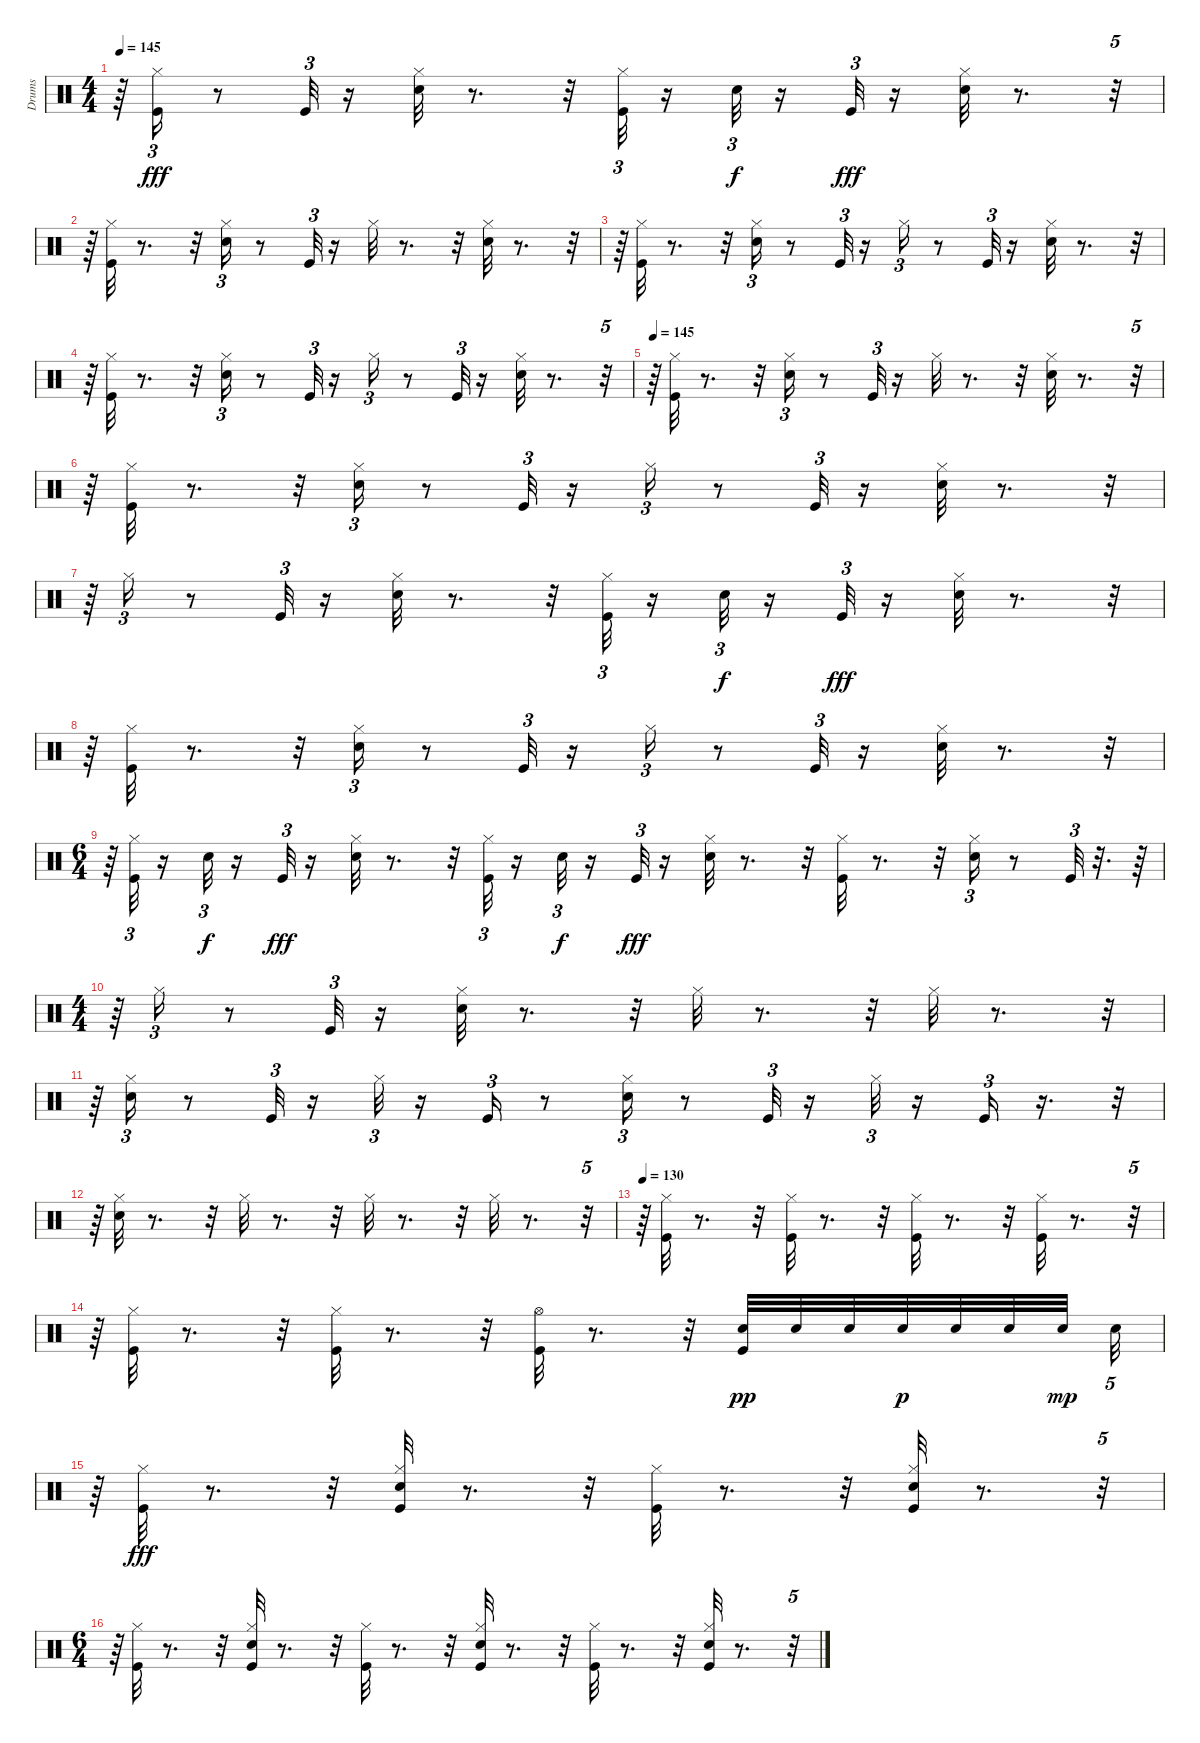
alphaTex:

\track ("Drums" "Drums") {instrument percussion}
\staff {score}
\articulation defaults
\ts (4 4)
\tempo 145
\clef neutral
\ks c
r.64{dy fff} ("Kick (hit)" "Hi-Hat (closed)").16{tu (3 2)} r.8 "Kick (hit)".32{tu (3 2)} r.16 ("Electric Snare (hit)" "Hi-Hat (closed)").32 r.8{d} r.32 ("Kick (hit)" "Hi-Hat (closed)").32{tu (3 2)} r.16 "Electric Snare (hit)".32{tu (3 2) dy f} r.16 "Kick (hit)".32{tu (3 2) dy fff} r.16 ("Electric Snare (hit)" "Hi-Hat (closed)").32 r.8{d} r.32{tu (5 4)} |
r.64 ("Kick (hit)" "Hi-Hat (closed)").32 r.8{d} r.32 ("Electric Snare (hit)" "Hi-Hat (closed)").16{tu (3 2)} r.8 "Kick (hit)".32{tu (3 2)} r.16 "Hi-Hat (closed)".32 r.8{d} r.32 ("Electric Snare (hit)" "Hi-Hat (closed)").32 r.8{d} r.32{tu (5 4)} |
r.64 ("Kick (hit)" "Hi-Hat (closed)").32 r.8{d} r.32 ("Electric Snare (hit)" "Hi-Hat (closed)").16{tu (3 2)} r.8 "Kick (hit)".32{tu (3 2)} r.16 "Hi-Hat (closed)".16{tu (3 2)} r.8 "Kick (hit)".32{tu (3 2)} r.16 ("Electric Snare (hit)" "Hi-Hat (closed)").32 r.8{d} r.32{tu (5 4)} |
r.64 ("Kick (hit)" "Hi-Hat (closed)").32 r.8{d} r.32 ("Electric Snare (hit)" "Hi-Hat (closed)").16{tu (3 2)} r.8 "Kick (hit)".32{tu (3 2)} r.16 "Hi-Hat (closed)".16{tu (3 2)} r.8 "Kick (hit)".32{tu (3 2)} r.16 ("Electric Snare (hit)" "Hi-Hat (closed)").32 r.8{d} r.32{tu (5 4)} |
\tempo 145
r.64 ("Kick (hit)" "Hi-Hat (closed)").32 r.8{d} r.32 ("Electric Snare (hit)" "Hi-Hat (closed)").16{tu (3 2)} r.8 "Kick (hit)".32{tu (3 2)} r.16 "Hi-Hat (closed)".32 r.8{d} r.32 ("Electric Snare (hit)" "Hi-Hat (closed)").32 r.8{d} r.32{tu (5 4)} |
r.64 ("Kick (hit)" "Hi-Hat (closed)").32 r.8{d} r.32 ("Electric Snare (hit)" "Hi-Hat (closed)").16{tu (3 2)} r.8 "Kick (hit)".32{tu (3 2)} r.16 "Hi-Hat (closed)".16{tu (3 2)} r.8 "Kick (hit)".32{tu (3 2)} r.16 ("Electric Snare (hit)" "Hi-Hat (closed)").32 r.8{d} r.32{tu (5 4)} |
r.64 "Hi-Hat (closed)".16{tu (3 2)} r.8 "Kick (hit)".32{tu (3 2)} r.16 ("Electric Snare (hit)" "Hi-Hat (closed)").32 r.8{d} r.32 ("Kick (hit)" "Hi-Hat (closed)").32{tu (3 2)} r.16 "Electric Snare (hit)".32{tu (3 2) dy f} r.16 "Kick (hit)".32{tu (3 2) dy fff} r.16 ("Electric Snare (hit)" "Hi-Hat (closed)").32 r.8{d} r.32{tu (5 4)} |
r.64 ("Kick (hit)" "Hi-Hat (closed)").32 r.8{d} r.32 ("Electric Snare (hit)" "Hi-Hat (closed)").16{tu (3 2)} r.8 "Kick (hit)".32{tu (3 2)} r.16 "Hi-Hat (closed)".16{tu (3 2)} r.8 "Kick (hit)".32{tu (3 2)} r.16 ("Electric Snare (hit)" "Hi-Hat (closed)").32 r.8{d} r.32{tu (5 4)} |
\ts (6 4)
r.64 ("Kick (hit)" "Hi-Hat (closed)").32{tu (3 2)} r.16 "Electric Snare (hit)".32{tu (3 2) dy f} r.16 "Kick (hit)".32{tu (3 2) dy fff} r.16 ("Electric Snare (hit)" "Hi-Hat (closed)").32 r.8{d} r.32 ("Kick (hit)" "Hi-Hat (closed)").32{tu (3 2)} r.16 "Electric Snare (hit)".32{tu (3 2) dy f} r.16 "Kick (hit)".32{tu (3 2) dy fff} r.16 ("Electric Snare (hit)" "Hi-Hat (closed)").32 r.8{d} r.32 ("Kick (hit)" "Hi-Hat (closed)").32 r.8{d} r.32 ("Electric Snare (hit)" "Hi-Hat (closed)").16{tu (3 2)} r.8 "Kick (hit)".32{tu (3 2)} r.32{d} r.64 |
\ts (4 4)
r.64 "Hi-Hat (closed)".16{tu (3 2)} r.8 "Kick (hit)".32{tu (3 2)} r.16 ("Electric Snare (hit)" "Hi-Hat (closed)").32 r.8{d} r.32 "Hi-Hat (closed)".32 r.8{d} r.32 "Hi-Hat (closed)".32 r.8{d} r.32{tu (5 4)} |
r.64 ("Electric Snare (hit)" "Hi-Hat (closed)").16{tu (3 2)} r.8 "Kick (hit)".32{tu (3 2)} r.16 "Hi-Hat (closed)".32{tu (3 2)} r.16 "Kick (hit)".16{tu (3 2)} r.8 ("Electric Snare (hit)" "Hi-Hat (closed)").16{tu (3 2)} r.8 "Kick (hit)".32{tu (3 2)} r.16 "Hi-Hat (closed)".32{tu (3 2)} r.16 "Kick (hit)".16{tu (3 2)} r.16{d} r.32{tu (5 4)} |
r.64 ("Electric Snare (hit)" "Hi-Hat (closed)").32 r.8{d} r.32 "Hi-Hat (closed)".32 r.8{d} r.32 "Hi-Hat (closed)".32 r.8{d} r.32 "Hi-Hat (closed)".32 r.8{d} r.32{tu (5 4)} |
\tempo 130
r.64 ("Kick (hit)" "Hi-Hat (closed)").32 r.8{d} r.32 ("Kick (hit)" "Hi-Hat (closed)").32 r.8{d} r.32 ("Kick (hit)" "Hi-Hat (closed)").32 r.8{d} r.32 ("Kick (hit)" "Hi-Hat (closed)").32 r.8{d} r.32{tu (5 4)} |
r.64 ("Kick (hit)" "Hi-Hat (closed)").32 r.8{d} r.32 ("Kick (hit)" "Hi-Hat (closed)").32 r.8{d} r.32 ("Hi-Hat (open)" "Kick (hit)").32 r.8{d} r.32 ("Kick (hit)" "Electric Snare (hit)").32{dy pp} "Electric Snare (hit)".32 "Electric Snare (hit)".32 "Electric Snare (hit)".32{dy p} "Electric Snare (hit)".32 "Electric Snare (hit)".32 "Electric Snare (hit)".32{dy mp beam splitsecondary} "Electric Snare (hit)".32{tu (5 4)} |
r.64 ("Kick (hit)" "Hi-Hat (closed)").32{dy fff} r.8{d} r.32 ("Kick (hit)" "Electric Snare (hit)" "Hi-Hat (closed)").32 r.8{d} r.32 ("Kick (hit)" "Hi-Hat (closed)").32 r.8{d} r.32 ("Kick (hit)" "Electric Snare (hit)" "Hi-Hat (closed)").32 r.8{d} r.32{tu (5 4)} |
\ts (6 4)
r.64 ("Kick (hit)" "Hi-Hat (closed)").32 r.8{d} r.32 ("Kick (hit)" "Electric Snare (hit)" "Hi-Hat (closed)").32 r.8{d} r.32 ("Kick (hit)" "Hi-Hat (closed)").32 r.8{d} r.32 ("Kick (hit)" "Electric Snare (hit)" "Hi-Hat (closed)").32 r.8{d} r.32 ("Kick (hit)" "Hi-Hat (closed)").32 r.8{d} r.32 ("Kick (hit)" "Electric Snare (hit)" "Hi-Hat (closed)").32 r.8{d} r.32{tu (5 4)}
